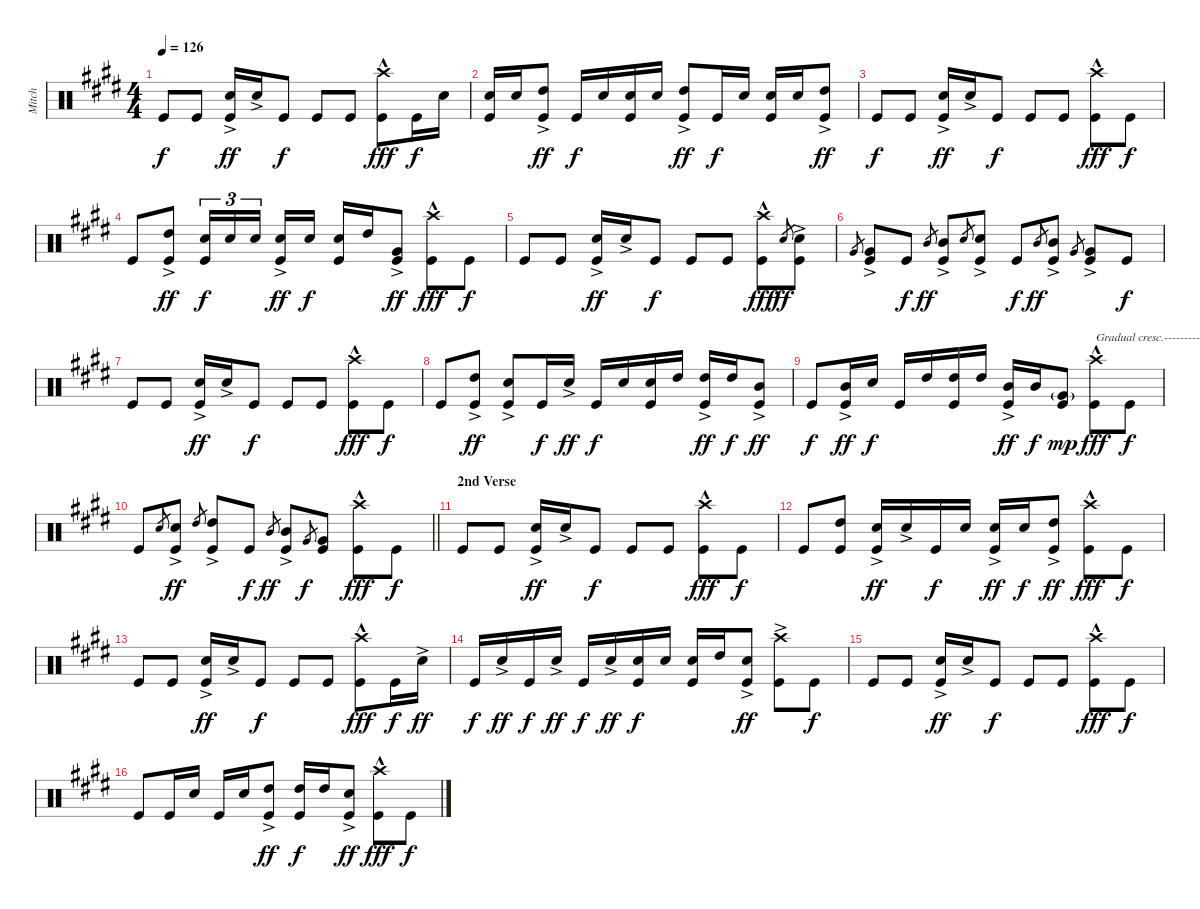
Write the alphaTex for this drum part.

\track ("Mitch" "Mitch") {instrument percussion}
\staff {score}
\articulation defaults
\ts (4 4)
\tempo 126
\clef neutral
\ks e "Kick (hit)".8{dy f} "Kick (hit)".8
("Snare (hit) 2"{ac} "Kick (hit)").16{dy ff} "Snare (hit) 2"{ac}.16 "Kick (hit)".8{dy f} "Kick (hit)".8 "Kick (hit)".8 ("Crash high (hit)"{hac} "Kick (hit)").8{dy fff} "Kick (hit)".16{dy f} "Snare (hit) 2".16 |
("Snare (hit) 2" "Kick (hit)").16 "Snare (hit) 2".16 ("High Tom (hit)"{ac} "Kick (hit)").8{dy ff} "Kick (hit)".16{dy f} "Snare (hit) 2".16 ("Snare (hit) 2" "Kick (hit)").16 "Snare (hit) 2".16 ("High Tom (hit)"{ac} "Kick (hit)").8{dy ff} "Kick (hit)".16{dy f} "Snare (hit) 2".16 ("Snare (hit) 2" "Kick (hit)").16 "Snare (hit) 2".16 ("High Tom (hit)"{ac} "Kick (hit)").8{dy ff} |
"Kick (hit)".8{dy f} "Kick (hit)".8 ("Snare (hit) 2"{ac} "Kick (hit)").16{dy ff} "Snare (hit) 2"{ac}.16 "Kick (hit)".8{dy f} "Kick (hit)".8 "Kick (hit)".8 ("Crash high (hit)"{hac} "Kick (hit)").8{dy fff} "Kick (hit)".8{dy f} |
"Kick (hit)".8 ("High Tom (hit)"{ac} "Kick (hit)").8{dy ff} ("Snare (hit) 2" "Kick (hit)").16{tu (3 2) dy f} "Snare (hit) 2".16{tu (3 2)} "Snare (hit) 2".16{tu (3 2) beam splitsecondary} ("Snare (hit) 2"{ac} "Kick (hit)").16{dy ff} "Snare (hit) 2".16{dy f} ("Snare (hit) 2" "Kick (hit)").16 "High Tom (hit)".16 ("Very Low Tom (hit)"{ac} "Kick (hit)").8{dy ff} ("Crash high (hit)"{hac} "Kick (hit)").8{dy fff} "Kick (hit)".8{dy f} |
"Kick (hit)".8 "Kick (hit)".8 ("Snare (hit) 2"{ac} "Kick (hit)").16{dy ff} "Snare (hit) 2"{ac}.16 "Kick (hit)".8{dy f} "Kick (hit)".8 "Kick (hit)".8 ("Crash high (hit)"{hac} "Kick (hit)").8{dy fff} "Snare (hit) 2".8{gr dy ff} ("Snare (hit) 2"{ac} "Kick (hit)").8 |
"Very Low Tom (hit)".8{gr} ("Very Low Tom (hit)"{ac} "Kick (hit)").8 "Kick (hit)".8{dy f} "Mid Tom (hit)".8{gr dy ff} ("Mid Tom (hit)"{ac} "Kick (hit)").8 "Snare (hit) 2".8{gr} ("Snare (hit) 2"{ac} "Kick (hit)").8 "Kick (hit)".8{dy f} "Mid Tom (hit)".8{gr dy ff} ("Mid Tom (hit)"{ac} "Kick (hit)").8 "Very Low Tom (hit)".8{gr} ("Very Low Tom (hit)"{ac} "Kick (hit)").8 "Kick (hit)".8{dy f} |
"Kick (hit)".8 "Kick (hit)".8 ("Snare (hit) 2"{ac} "Kick (hit)").16{dy ff} "Snare (hit) 2"{ac}.16 "Kick (hit)".8{dy f} "Kick (hit)".8 "Kick (hit)".8 ("Crash high (hit)"{hac} "Kick (hit)").8{dy fff} "Kick (hit)".8{dy f} |
"Kick (hit)".8 ("High Tom (hit)"{ac} "Kick (hit)").8{dy ff} ("Snare (hit) 2"{ac} "Kick (hit)").8 "Kick (hit)".16{dy f} "Snare (hit) 2"{ac}.16{dy ff} "Kick (hit)".16{dy f} "Snare (hit) 2".16 ("Snare (hit) 2" "Kick (hit)").16 "High Tom (hit)".16 ("High Tom (hit)"{ac} "Kick (hit)").16{dy ff} "High Tom (hit)".16{dy f} ("Mid Tom (hit)"{ac} "Kick (hit)").8{dy ff} |
"Kick (hit)".8{dy f} ("Mid Tom (hit)"{ac} "Kick (hit)").16{dy ff} "Snare (hit) 2".16{dy f} "Kick (hit)".16 "High Tom (hit)".16 ("High Tom (hit)" "Kick (hit)").16 "High Tom (hit)".16 ("Mid Tom (hit)"{ac} "Kick (hit)").16{dy ff} "Mid Tom (hit)".16{dy f} ("Very Low Tom (hit)"{g} "Kick (hit)").8{dy mp} ("Crash high (hit)"{hac} "Kick (hit)").8{txt "Gradual cresc.---------------------------------" dy fff} "Kick (hit)".8{dy f} |
\barLineRight lightlight "Kick (hit)".8 "Snare (hit) 2".8{gr}
("Snare (hit) 2"{ac} "Kick (hit)").8{dy ff} "High Tom (hit)".8{gr} ("High Tom (hit)"{ac} "Kick (hit)").8 "Kick (hit)".8{dy f} "Mid Tom (hit)".8{gr dy ff} ("Mid Tom (hit)"{ac} "Kick (hit)").8 "Very Low Tom (hit)".8{gr dy f} ("Very Low Tom (hit)" "Kick (hit)").8 ("Crash high (hit)"{hac} "Kick (hit)").8{dy fff} "Kick (hit)".8{dy f} |
\section ("" "2nd Verse")
"Kick (hit)".8 "Kick (hit)".8 ("Snare (hit) 2"{ac} "Kick (hit)").16{dy ff} "Snare (hit) 2"{ac}.16 "Kick (hit)".8{dy f} "Kick (hit)".8 "Kick (hit)".8 ("Crash high (hit)"{hac} "Kick (hit)").8{dy fff} "Kick (hit)".8{dy f} |
"Kick (hit)".8 ("High Tom (hit)" "Kick (hit)").8 ("Snare (hit) 2"{ac} "Kick (hit)").16{dy ff} "Snare (hit) 2"{ac}.16 "Kick (hit)".16{dy f} "Snare (hit) 2".16 ("Snare (hit) 2"{ac} "Kick (hit)").16{dy ff} "Snare (hit) 2".16{dy f} ("High Tom (hit)"{ac} "Kick (hit)").8{dy ff} ("Crash high (hit)"{hac} "Kick (hit)").8{dy fff} "Kick (hit)".8{dy f} |
"Kick (hit)".8 "Kick (hit)".8 ("Snare (hit) 2"{ac} "Kick (hit)").16{dy ff} "Snare (hit) 2"{ac}.16 "Kick (hit)".8{dy f} "Kick (hit)".8 "Kick (hit)".8 ("Crash high (hit)"{hac} "Kick (hit)").8{dy fff} "Kick (hit)".16{dy f} "Snare (hit) 2"{ac}.16{dy ff} |
"Kick (hit)".16{dy f} "Snare (hit) 2"{ac}.16{dy ff} "Kick (hit)".16{dy f} "Snare (hit) 2"{ac}.16{dy ff} "Kick (hit)".16{dy f} "Snare (hit) 2"{ac}.16{dy ff} ("Snare (hit) 2" "Kick (hit)").16{dy f} "Snare (hit) 2".16 ("Snare (hit) 2" "Kick (hit)").16 "High Tom (hit)".16 ("Snare (hit) 2"{ac} "Kick (hit)").8{dy ff} ("Crash high (hit)"{ac} "Kick (hit)").8 "Kick (hit)".8{dy f} |
"Kick (hit)".8 "Kick (hit)".8 ("Snare (hit) 2"{ac} "Kick (hit)").16{dy ff} "Snare (hit) 2"{ac}.16 "Kick (hit)".8{dy f} "Kick (hit)".8 "Kick (hit)".8 ("Crash high (hit)"{hac} "Kick (hit)").8{dy fff} "Kick (hit)".8{dy f} |
"Kick (hit)".8 "Kick (hit)".16 "Snare (hit) 2".16 "Kick (hit)".16 "Snare (hit) 2".16 ("High Tom (hit)"{ac} "Kick (hit)").8{dy ff} ("High Tom (hit)" "Kick (hit)").16{dy f} "High Tom (hit)".16 ("Snare (hit) 2"{ac} "Kick (hit)").8{dy ff} ("Crash high (hit)"{hac} "Kick (hit)").8{dy fff} "Kick (hit)".8{dy f}
